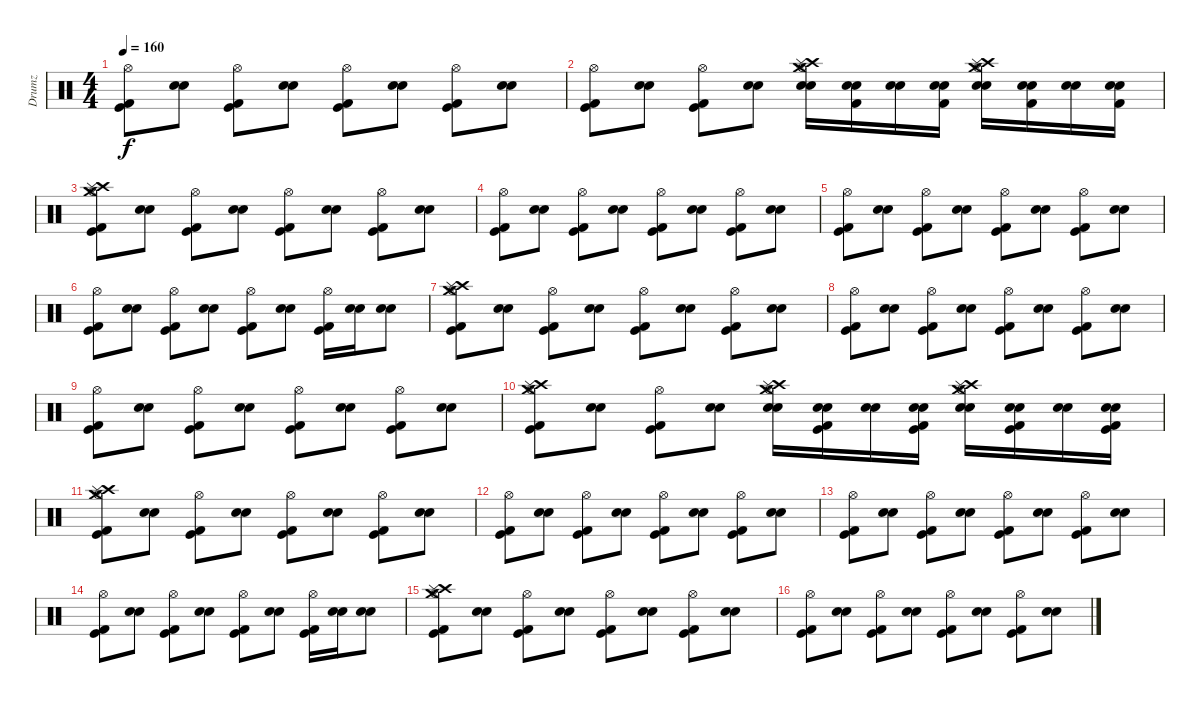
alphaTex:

\track ("Drumz" "Drumz") {instrument percussion}
\staff {score}
\articulation defaults
\ts (4 4)
\tempo 160
\clef neutral
\ks c
("Kick (hit)" "Kick (hit) 2" "Hi-Hat (open)").8{dy f} ("Electric Snare (hit)" "Snare (hit) 2").8 ("Kick (hit) 2" "Kick (hit)" "Hi-Hat (open)").8 ("Snare (hit) 2" "Electric Snare (hit)").8 ("Kick (hit) 2" "Kick (hit)" "Hi-Hat (open)").8 ("Electric Snare (hit)" "Snare (hit) 2").8 ("Kick (hit)" "Kick (hit) 2" "Hi-Hat (open)").8 ("Snare (hit) 2" "Electric Snare (hit)").8 |
("Kick (hit)" "Kick (hit) 2" "Hi-Hat (open)").8 ("Electric Snare (hit)" "Snare (hit) 2").8 ("Kick (hit) 2" "Kick (hit)" "Hi-Hat (open)").8 ("Snare (hit) 2" "Electric Snare (hit)").8 ("Hi-Hat (open)" "Crash high (hit)" "Electric Snare (hit)" "Snare (hit) 2" "Crash medium (hit)" "Splash (hit)").16 ("Snare (hit) 2" "Electric Snare (hit)" "Kick (hit) 2").16 ("Electric Snare (hit)" "Snare (hit) 2").16 ("Electric Snare (hit)" "Snare (hit) 2" "Kick (hit) 2").16 ("Hi-Hat (open)" "Crash high (hit)" "Electric Snare (hit)" "Snare (hit) 2" "Splash (hit)" "Crash medium (hit)").16 ("Electric Snare (hit)" "Snare (hit) 2" "Kick (hit) 2").16 ("Electric Snare (hit)" "Snare (hit) 2").16 ("Electric Snare (hit)" "Snare (hit) 2" "Kick (hit) 2").16 |
("Kick (hit)" "Kick (hit) 2" "Hi-Hat (open)" "Crash high (hit)" "Crash medium (hit)" "Splash (hit)").8{volume 12} ("Electric Snare (hit)" "Snare (hit) 2").8 ("Kick (hit) 2" "Kick (hit)" "Hi-Hat (open)").8 ("Snare (hit) 2" "Electric Snare (hit)").8 ("Kick (hit) 2" "Kick (hit)" "Hi-Hat (open)").8 ("Electric Snare (hit)" "Snare (hit) 2").8 ("Kick (hit)" "Kick (hit) 2" "Hi-Hat (open)").8 ("Snare (hit) 2" "Electric Snare (hit)").8 |
("Kick (hit)" "Kick (hit) 2" "Hi-Hat (open)").8 ("Electric Snare (hit)" "Snare (hit) 2").8 ("Kick (hit) 2" "Kick (hit)" "Hi-Hat (open)").8 ("Snare (hit) 2" "Electric Snare (hit)").8 ("Kick (hit) 2" "Kick (hit)" "Hi-Hat (open)").8 ("Electric Snare (hit)" "Snare (hit) 2").8 ("Kick (hit)" "Kick (hit) 2" "Hi-Hat (open)").8 ("Snare (hit) 2" "Electric Snare (hit)").8 |
("Kick (hit)" "Kick (hit) 2" "Hi-Hat (open)").8 ("Electric Snare (hit)" "Snare (hit) 2").8 ("Kick (hit) 2" "Kick (hit)" "Hi-Hat (open)").8 ("Snare (hit) 2" "Electric Snare (hit)").8 ("Kick (hit) 2" "Kick (hit)" "Hi-Hat (open)").8 ("Electric Snare (hit)" "Snare (hit) 2").8 ("Kick (hit)" "Kick (hit) 2" "Hi-Hat (open)").8 ("Snare (hit) 2" "Electric Snare (hit)").8 |
("Kick (hit)" "Kick (hit) 2" "Hi-Hat (open)").8 ("Electric Snare (hit)" "Snare (hit) 2").8 ("Kick (hit) 2" "Kick (hit)" "Hi-Hat (open)").8 ("Snare (hit) 2" "Electric Snare (hit)").8 ("Kick (hit) 2" "Kick (hit)" "Hi-Hat (open)").8 ("Electric Snare (hit)" "Snare (hit) 2").8 ("Kick (hit)" "Kick (hit) 2" "Hi-Hat (open)").16 ("Snare (hit) 2" "Electric Snare (hit)").16 ("Snare (hit) 2" "Electric Snare (hit)").8 |
("Kick (hit)" "Kick (hit) 2" "Hi-Hat (open)" "Crash high (hit)" "Crash medium (hit)" "Splash (hit)").8{volume 12} ("Electric Snare (hit)" "Snare (hit) 2").8 ("Kick (hit) 2" "Kick (hit)" "Hi-Hat (open)").8 ("Snare (hit) 2" "Electric Snare (hit)").8 ("Kick (hit) 2" "Kick (hit)" "Hi-Hat (open)").8 ("Electric Snare (hit)" "Snare (hit) 2").8 ("Kick (hit)" "Kick (hit) 2" "Hi-Hat (open)").8 ("Snare (hit) 2" "Electric Snare (hit)").8 |
("Kick (hit)" "Kick (hit) 2" "Hi-Hat (open)").8 ("Electric Snare (hit)" "Snare (hit) 2").8 ("Kick (hit) 2" "Kick (hit)" "Hi-Hat (open)").8 ("Snare (hit) 2" "Electric Snare (hit)").8 ("Kick (hit) 2" "Kick (hit)" "Hi-Hat (open)").8 ("Electric Snare (hit)" "Snare (hit) 2").8 ("Kick (hit)" "Kick (hit) 2" "Hi-Hat (open)").8 ("Snare (hit) 2" "Electric Snare (hit)").8 |
("Kick (hit)" "Kick (hit) 2" "Hi-Hat (open)").8 ("Electric Snare (hit)" "Snare (hit) 2").8 ("Kick (hit) 2" "Kick (hit)" "Hi-Hat (open)").8 ("Snare (hit) 2" "Electric Snare (hit)").8 ("Kick (hit) 2" "Kick (hit)" "Hi-Hat (open)").8 ("Electric Snare (hit)" "Snare (hit) 2").8 ("Kick (hit)" "Kick (hit) 2" "Hi-Hat (open)").8 ("Snare (hit) 2" "Electric Snare (hit)").8 |
("Kick (hit)" "Kick (hit) 2" "Hi-Hat (open)" "Crash high (hit)" "Splash (hit)" "Crash medium (hit)").8 ("Electric Snare (hit)" "Snare (hit) 2").8 ("Kick (hit) 2" "Kick (hit)" "Hi-Hat (open)").8 ("Snare (hit) 2" "Electric Snare (hit)").8 ("Crash medium (hit)" "Electric Snare (hit)" "Hi-Hat (open)" "Crash high (hit)" "Splash (hit)" "Snare (hit) 2").16 ("Kick (hit) 2" "Kick (hit)" "Electric Snare (hit)" "Snare (hit) 2").16 ("Electric Snare (hit)" "Snare (hit) 2").16 ("Snare (hit) 2" "Electric Snare (hit)" "Kick (hit) 2" "Kick (hit)").16 ("Crash medium (hit)" "Snare (hit) 2" "Hi-Hat (open)" "Crash high (hit)" "Splash (hit)" "Electric Snare (hit)").16 ("Kick (hit)" "Kick (hit) 2" "Snare (hit) 2" "Electric Snare (hit)").16 ("Snare (hit) 2" "Electric Snare (hit)").16 ("Electric Snare (hit)" "Snare (hit) 2" "Kick (hit) 2" "Kick (hit)").16 |
("Kick (hit)" "Kick (hit) 2" "Hi-Hat (open)" "Crash high (hit)" "Crash medium (hit)" "Splash (hit)").8{volume 12} ("Electric Snare (hit)" "Snare (hit) 2").8 ("Kick (hit) 2" "Kick (hit)" "Hi-Hat (open)").8 ("Snare (hit) 2" "Electric Snare (hit)").8 ("Kick (hit) 2" "Kick (hit)" "Hi-Hat (open)").8 ("Electric Snare (hit)" "Snare (hit) 2").8 ("Kick (hit)" "Kick (hit) 2" "Hi-Hat (open)").8 ("Snare (hit) 2" "Electric Snare (hit)").8 |
("Kick (hit)" "Kick (hit) 2" "Hi-Hat (open)").8 ("Electric Snare (hit)" "Snare (hit) 2").8 ("Kick (hit) 2" "Kick (hit)" "Hi-Hat (open)").8 ("Snare (hit) 2" "Electric Snare (hit)").8 ("Kick (hit) 2" "Kick (hit)" "Hi-Hat (open)").8 ("Electric Snare (hit)" "Snare (hit) 2").8 ("Kick (hit)" "Kick (hit) 2" "Hi-Hat (open)").8 ("Snare (hit) 2" "Electric Snare (hit)").8 |
("Kick (hit)" "Kick (hit) 2" "Hi-Hat (open)").8 ("Electric Snare (hit)" "Snare (hit) 2").8 ("Kick (hit) 2" "Kick (hit)" "Hi-Hat (open)").8 ("Snare (hit) 2" "Electric Snare (hit)").8 ("Kick (hit) 2" "Kick (hit)" "Hi-Hat (open)").8 ("Electric Snare (hit)" "Snare (hit) 2").8 ("Kick (hit)" "Kick (hit) 2" "Hi-Hat (open)").8 ("Snare (hit) 2" "Electric Snare (hit)").8 |
("Kick (hit)" "Kick (hit) 2" "Hi-Hat (open)").8 ("Electric Snare (hit)" "Snare (hit) 2").8 ("Kick (hit) 2" "Kick (hit)" "Hi-Hat (open)").8 ("Snare (hit) 2" "Electric Snare (hit)").8 ("Kick (hit) 2" "Kick (hit)" "Hi-Hat (open)").8 ("Electric Snare (hit)" "Snare (hit) 2").8 ("Kick (hit)" "Kick (hit) 2" "Hi-Hat (open)").16 ("Snare (hit) 2" "Electric Snare (hit)").16 ("Snare (hit) 2" "Electric Snare (hit)").8 |
("Kick (hit)" "Kick (hit) 2" "Hi-Hat (open)" "Crash high (hit)" "Crash medium (hit)" "Splash (hit)").8{volume 12} ("Electric Snare (hit)" "Snare (hit) 2").8 ("Kick (hit) 2" "Kick (hit)" "Hi-Hat (open)").8 ("Snare (hit) 2" "Electric Snare (hit)").8 ("Kick (hit) 2" "Kick (hit)" "Hi-Hat (open)").8 ("Electric Snare (hit)" "Snare (hit) 2").8 ("Kick (hit)" "Kick (hit) 2" "Hi-Hat (open)").8 ("Snare (hit) 2" "Electric Snare (hit)").8 |
("Kick (hit)" "Kick (hit) 2" "Hi-Hat (open)").8 ("Electric Snare (hit)" "Snare (hit) 2").8 ("Kick (hit) 2" "Kick (hit)" "Hi-Hat (open)").8 ("Snare (hit) 2" "Electric Snare (hit)").8 ("Kick (hit) 2" "Kick (hit)" "Hi-Hat (open)").8 ("Electric Snare (hit)" "Snare (hit) 2").8 ("Kick (hit)" "Kick (hit) 2" "Hi-Hat (open)").8 ("Snare (hit) 2" "Electric Snare (hit)").8
